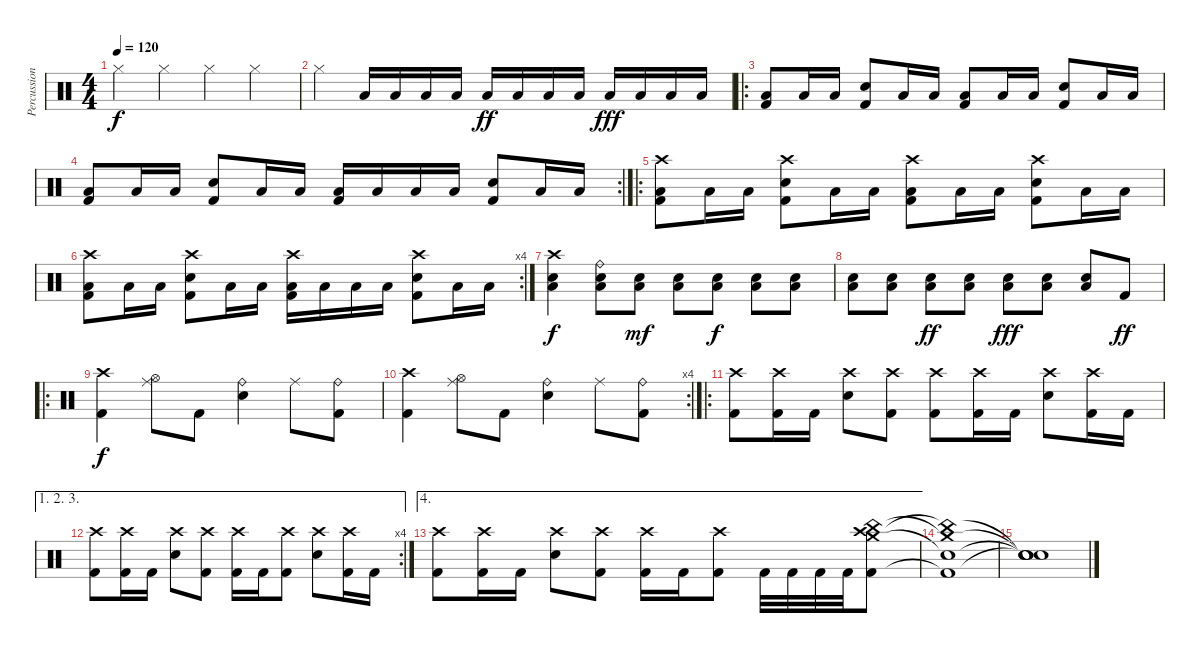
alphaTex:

\track ("Percussion" "Percussion") {instrument percussion}
\staff {score}
\articulation defaults
\ts (4 4)
\tempo 120
\clef neutral
\ks c "Hi-Hat (closed)".4{dy f} "Hi-Hat (closed)".4 "Hi-Hat (closed)".4 "Hi-Hat (closed)".4
|
"Hi-Hat (closed)".4 "Low Floor Tom (hit)".16 "Low Floor Tom (hit)".16 "Low Floor Tom (hit)".16 "Low Floor Tom (hit)".16 "Low Floor Tom (hit)".16{dy ff} "Low Floor Tom (hit)".16 "Low Floor Tom (hit)".16 "Low Floor Tom (hit)".16 "Low Floor Tom (hit)".16{dy fff} "Low Floor Tom (hit)".16 "Low Floor Tom (hit)".16 "Low Floor Tom (hit)".16 |
\ro
("Low Floor Tom (hit)" "Kick (hit) 2").8 "Low Floor Tom (hit)".16 "Low Floor Tom (hit)".16 ("Electric Snare (hit)" "Kick (hit) 2").8 "Low Floor Tom (hit)".16 "Low Floor Tom (hit)".16 ("Low Floor Tom (hit)" "Kick (hit) 2").8 "Low Floor Tom (hit)".16 "Low Floor Tom (hit)".16 ("Electric Snare (hit)" "Kick (hit) 2").8 "Low Floor Tom (hit)".16 "Low Floor Tom (hit)".16 |
\rc 2
("Low Floor Tom (hit)" "Kick (hit) 2").8 "Low Floor Tom (hit)".16 "Low Floor Tom (hit)".16 ("Electric Snare (hit)" "Kick (hit) 2").8 "Low Floor Tom (hit)".16 "Low Floor Tom (hit)".16 ("Low Floor Tom (hit)" "Kick (hit) 2").16 "Low Floor Tom (hit)".16 "Low Floor Tom (hit)".16 "Low Floor Tom (hit)".16 ("Electric Snare (hit)" "Kick (hit) 2").8 "Low Floor Tom (hit)".16 "Low Floor Tom (hit)".16 |
\ro
("Crash high (hit)" "Low Floor Tom (hit)" "Kick (hit) 2").8 "Low Floor Tom (hit)".16 "Low Floor Tom (hit)".16 ("Crash high (hit)" "Electric Snare (hit)" "Kick (hit) 2").8 "Low Floor Tom (hit)".16 "Low Floor Tom (hit)".16 ("Crash high (hit)" "Low Floor Tom (hit)" "Kick (hit) 2").8 "Low Floor Tom (hit)".16 "Low Floor Tom (hit)".16 ("Crash high (hit)" "Electric Snare (hit)" "Kick (hit) 2").8 "Low Floor Tom (hit)".16 "Low Floor Tom (hit)".16 |
\rc 4
("Crash high (hit)" "Low Floor Tom (hit)" "Kick (hit) 2").8 "Low Floor Tom (hit)".16 "Low Floor Tom (hit)".16 ("Crash high (hit)" "Electric Snare (hit)" "Kick (hit) 2").8 "Low Floor Tom (hit)".16 "Low Floor Tom (hit)".16 ("Crash high (hit)" "Low Floor Tom (hit)" "Kick (hit) 2").16 "Low Floor Tom (hit)".16 "Low Floor Tom (hit)".16 "Low Floor Tom (hit)".16 ("Crash high (hit)" "Electric Snare (hit)" "Kick (hit) 2").8 "Low Floor Tom (hit)".16 "Low Floor Tom (hit)".16 |
("Crash high (hit)" "Electric Snare (hit)" "Low Floor Tom (hit)").4{dy f} ("Ride (bell)" "Electric Snare (hit)" "Low Floor Tom (hit)").8 ("Electric Snare (hit)" "Low Floor Tom (hit)").8{dy mf} ("Electric Snare (hit)" "Low Floor Tom (hit)").8 ("Electric Snare (hit)" "Low Floor Tom (hit)").8{dy f} ("Electric Snare (hit)" "Low Floor Tom (hit)").8 ("Electric Snare (hit)" "Low Floor Tom (hit)").8 |
("Electric Snare (hit)" "Low Floor Tom (hit)").8 ("Electric Snare (hit)" "Low Floor Tom (hit)").8 ("Electric Snare (hit)" "Low Floor Tom (hit)").8{dy ff} ("Electric Snare (hit)" "Low Floor Tom (hit)").8 ("Electric Snare (hit)" "Low Floor Tom (hit)").8{dy fff} ("Electric Snare (hit)" "Low Floor Tom (hit)").8 ("Electric Snare (hit)" "Low Floor Tom (hit)").8 "Kick (hit) 2".8{dy ff} |
\ro
("Crash high (hit)" "Kick (hit) 2").4{dy f} ("Ride (middle)" "Hi-Hat (open)").8 "Kick (hit) 2".8 ("Ride (bell)" "Electric Snare (hit)").4 "Ride (middle)".8 ("Ride (bell)" "Kick (hit) 2").8 |
\rc 4
("Crash high (hit)" "Kick (hit) 2").4 ("Ride (middle)" "Hi-Hat (open)").8 "Kick (hit) 2".8 ("Ride (bell)" "Electric Snare (hit)").4 "Ride (middle)".8 ("Ride (bell)" "Kick (hit) 2").8 |
\ro
("Crash high (hit)" "Kick (hit) 2").8 ("Crash high (hit)" "Kick (hit) 2").16 "Kick (hit) 2".16 ("Crash high (hit)" "Electric Snare (hit)").8 ("Crash high (hit)" "Kick (hit) 2").8 ("Crash high (hit)" "Kick (hit) 2").8 ("Crash high (hit)" "Kick (hit) 2").16 "Kick (hit) 2".16 ("Crash high (hit)" "Electric Snare (hit)").8 ("Crash high (hit)" "Kick (hit) 2").16 "Kick (hit) 2".16 |
\ae (1 2 3)
\rc 4
("Crash high (hit)" "Kick (hit) 2").8 ("Crash high (hit)" "Kick (hit) 2").16 "Kick (hit) 2".16 ("Crash high (hit)" "Electric Snare (hit)").8 ("Crash high (hit)" "Kick (hit) 2").8 ("Crash high (hit)" "Kick (hit) 2").16 "Kick (hit) 2".16 ("Crash high (hit)" "Kick (hit) 2").8 ("Crash high (hit)" "Electric Snare (hit)").8 ("Crash high (hit)" "Kick (hit) 2").16 "Kick (hit) 2".16 |
\ae 4
("Crash high (hit)" "Kick (hit) 2").8 ("Crash high (hit)" "Kick (hit) 2").16 "Kick (hit) 2".16 ("Crash high (hit)" "Electric Snare (hit)").8 ("Crash high (hit)" "Kick (hit) 2").8 ("Crash high (hit)" "Kick (hit) 2").16 "Kick (hit) 2".16 ("Crash high (hit)" "Kick (hit) 2").8 "Kick (hit) 2".32 "Kick (hit) 2".32 "Kick (hit) 2".32 "Kick (hit) 2".32 ("Crash high (hit)" "China (hit)" "Crash medium (hit)" "Kick (hit) 2").8 |
("China (hit)"{t} "Crash medium (hit)"{t} "Electric Snare (hit)"{t} "Kick (hit) 2"{t}).1 |
("Snare (hit)"{t} "Snare (hit)"{t} "Snare (hit)"{t} "Snare (hit)"{t}).1
